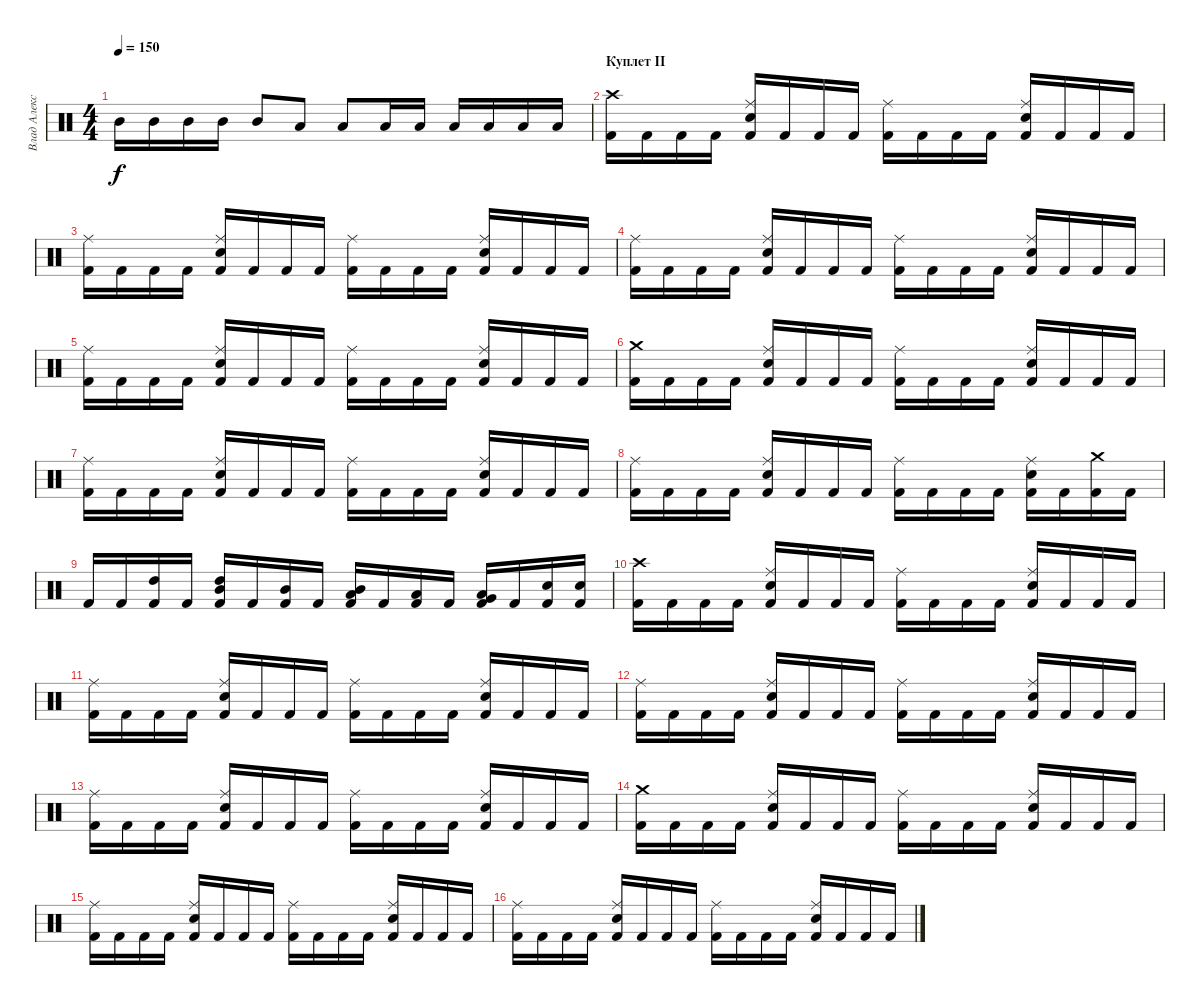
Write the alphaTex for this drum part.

\track ("Влад Алексеенко" "Влад Алекс") {instrument percussion}
\staff {score}
\articulation defaults
\ts (4 4)
\tempo 150
\clef neutral
\ks c "Mid Tom (hit)".16{dy f} "Mid Tom (hit)".16 "Mid Tom (hit)".16 "Mid Tom (hit)".16 "Mid Tom (hit)".8 "Low Tom (hit)".8 "Low Tom (hit)".8 "Low Tom (hit)".16 "Low Tom (hit)".16 "Low Tom (hit)".16 "Low Tom (hit)".16 "Low Tom (hit)".16 "Low Tom (hit)".16
|
\section ("" "Куплет II")
("Crash high (hit)" "Kick (hit) 2").16 "Kick (hit) 2".16 "Kick (hit) 2".16 "Kick (hit) 2".16 ("Ride (middle)" "Electric Snare (hit)" "Kick (hit) 2").16 "Kick (hit) 2".16 "Kick (hit) 2".16 "Kick (hit) 2".16 ("Ride (middle)" "Kick (hit) 2").16 "Kick (hit) 2".16 "Kick (hit) 2".16 "Kick (hit) 2".16 ("Ride (middle)" "Electric Snare (hit)" "Kick (hit) 2").16 "Kick (hit) 2".16 "Kick (hit) 2".16 "Kick (hit) 2".16 |
("Ride (middle)" "Kick (hit) 2").16 "Kick (hit) 2".16 "Kick (hit) 2".16 "Kick (hit) 2".16 ("Ride (middle)" "Electric Snare (hit)" "Kick (hit) 2").16 "Kick (hit) 2".16 "Kick (hit) 2".16 "Kick (hit) 2".16 ("Ride (middle)" "Kick (hit) 2").16 "Kick (hit) 2".16 "Kick (hit) 2".16 "Kick (hit) 2".16 ("Ride (middle)" "Electric Snare (hit)" "Kick (hit) 2").16 "Kick (hit) 2".16 "Kick (hit) 2".16 "Kick (hit) 2".16 |
("Ride (middle)" "Kick (hit) 2").16 "Kick (hit) 2".16 "Kick (hit) 2".16 "Kick (hit) 2".16 ("Ride (middle)" "Electric Snare (hit)" "Kick (hit) 2").16 "Kick (hit) 2".16 "Kick (hit) 2".16 "Kick (hit) 2".16 ("Ride (middle)" "Kick (hit) 2").16 "Kick (hit) 2".16 "Kick (hit) 2".16 "Kick (hit) 2".16 ("Ride (middle)" "Electric Snare (hit)" "Kick (hit) 2").16 "Kick (hit) 2".16 "Kick (hit) 2".16 "Kick (hit) 2".16 |
("Ride (middle)" "Kick (hit) 2").16 "Kick (hit) 2".16 "Kick (hit) 2".16 "Kick (hit) 2".16 ("Ride (middle)" "Electric Snare (hit)" "Kick (hit) 2").16 "Kick (hit) 2".16 "Kick (hit) 2".16 "Kick (hit) 2".16 ("Ride (middle)" "Kick (hit) 2").16 "Kick (hit) 2".16 "Kick (hit) 2".16 "Kick (hit) 2".16 ("Ride (middle)" "Electric Snare (hit)" "Kick (hit) 2").16 "Kick (hit) 2".16 "Kick (hit) 2".16 "Kick (hit) 2".16 |
("Crash medium (hit)" "Kick (hit) 2").16 "Kick (hit) 2".16 "Kick (hit) 2".16 "Kick (hit) 2".16 ("Ride (middle)" "Electric Snare (hit)" "Kick (hit) 2").16 "Kick (hit) 2".16 "Kick (hit) 2".16 "Kick (hit) 2".16 ("Ride (middle)" "Kick (hit) 2").16 "Kick (hit) 2".16 "Kick (hit) 2".16 "Kick (hit) 2".16 ("Ride (middle)" "Electric Snare (hit)" "Kick (hit) 2").16 "Kick (hit) 2".16 "Kick (hit) 2".16 "Kick (hit) 2".16 |
("Ride (middle)" "Kick (hit) 2").16 "Kick (hit) 2".16 "Kick (hit) 2".16 "Kick (hit) 2".16 ("Ride (middle)" "Electric Snare (hit)" "Kick (hit) 2").16 "Kick (hit) 2".16 "Kick (hit) 2".16 "Kick (hit) 2".16 ("Ride (middle)" "Kick (hit) 2").16 "Kick (hit) 2".16 "Kick (hit) 2".16 "Kick (hit) 2".16 ("Ride (middle)" "Electric Snare (hit)" "Kick (hit) 2").16 "Kick (hit) 2".16 "Kick (hit) 2".16 "Kick (hit) 2".16 |
("Ride (middle)" "Kick (hit) 2").16 "Kick (hit) 2".16 "Kick (hit) 2".16 "Kick (hit) 2".16 ("Ride (middle)" "Electric Snare (hit)" "Kick (hit) 2").16 "Kick (hit) 2".16 "Kick (hit) 2".16 "Kick (hit) 2".16 ("Ride (middle)" "Kick (hit) 2").16 "Kick (hit) 2".16 "Kick (hit) 2".16 "Kick (hit) 2".16 ("Ride (middle)" "Electric Snare (hit)" "Kick (hit) 2").16 "Kick (hit) 2".16 ("Crash medium (hit)" "Kick (hit) 2").16 "Kick (hit) 2".16 |
"Kick (hit) 2".16 "Kick (hit) 2".16 ("High Tom (hit)" "Kick (hit) 2").16 "Kick (hit) 2".16 ("High Tom (hit)" "Mid Tom (hit)" "Kick (hit) 2").16 "Kick (hit) 2".16 ("Mid Tom (hit)" "Kick (hit) 2").16 "Kick (hit) 2".16 ("Mid Tom (hit)" "Low Tom (hit)" "Kick (hit) 2").16 "Kick (hit) 2".16 ("Low Tom (hit)" "Kick (hit) 2").16 "Kick (hit) 2".16 ("Low Tom (hit)" "Very Low Tom (hit)" "Kick (hit) 2").16 "Kick (hit) 2".16 ("Electric Snare (hit)" "Kick (hit) 2").16 ("Electric Snare (hit)" "Kick (hit) 2").16 |
("Crash high (hit)" "Kick (hit) 2").16 "Kick (hit) 2".16 "Kick (hit) 2".16 "Kick (hit) 2".16 ("Ride (middle)" "Electric Snare (hit)" "Kick (hit) 2").16 "Kick (hit) 2".16 "Kick (hit) 2".16 "Kick (hit) 2".16 ("Ride (middle)" "Kick (hit) 2").16 "Kick (hit) 2".16 "Kick (hit) 2".16 "Kick (hit) 2".16 ("Ride (middle)" "Electric Snare (hit)" "Kick (hit) 2").16 "Kick (hit) 2".16 "Kick (hit) 2".16 "Kick (hit) 2".16 |
("Ride (middle)" "Kick (hit) 2").16 "Kick (hit) 2".16 "Kick (hit) 2".16 "Kick (hit) 2".16 ("Ride (middle)" "Electric Snare (hit)" "Kick (hit) 2").16 "Kick (hit) 2".16 "Kick (hit) 2".16 "Kick (hit) 2".16 ("Ride (middle)" "Kick (hit) 2").16 "Kick (hit) 2".16 "Kick (hit) 2".16 "Kick (hit) 2".16 ("Ride (middle)" "Electric Snare (hit)" "Kick (hit) 2").16 "Kick (hit) 2".16 "Kick (hit) 2".16 "Kick (hit) 2".16 |
("Ride (middle)" "Kick (hit) 2").16 "Kick (hit) 2".16 "Kick (hit) 2".16 "Kick (hit) 2".16 ("Ride (middle)" "Electric Snare (hit)" "Kick (hit) 2").16 "Kick (hit) 2".16 "Kick (hit) 2".16 "Kick (hit) 2".16 ("Ride (middle)" "Kick (hit) 2").16 "Kick (hit) 2".16 "Kick (hit) 2".16 "Kick (hit) 2".16 ("Ride (middle)" "Electric Snare (hit)" "Kick (hit) 2").16 "Kick (hit) 2".16 "Kick (hit) 2".16 "Kick (hit) 2".16 |
("Ride (middle)" "Kick (hit) 2").16 "Kick (hit) 2".16 "Kick (hit) 2".16 "Kick (hit) 2".16 ("Ride (middle)" "Electric Snare (hit)" "Kick (hit) 2").16 "Kick (hit) 2".16 "Kick (hit) 2".16 "Kick (hit) 2".16 ("Ride (middle)" "Kick (hit) 2").16 "Kick (hit) 2".16 "Kick (hit) 2".16 "Kick (hit) 2".16 ("Ride (middle)" "Electric Snare (hit)" "Kick (hit) 2").16 "Kick (hit) 2".16 "Kick (hit) 2".16 "Kick (hit) 2".16 |
("Crash medium (hit)" "Kick (hit) 2").16 "Kick (hit) 2".16 "Kick (hit) 2".16 "Kick (hit) 2".16 ("Ride (middle)" "Electric Snare (hit)" "Kick (hit) 2").16 "Kick (hit) 2".16 "Kick (hit) 2".16 "Kick (hit) 2".16 ("Ride (middle)" "Kick (hit) 2").16 "Kick (hit) 2".16 "Kick (hit) 2".16 "Kick (hit) 2".16 ("Ride (middle)" "Electric Snare (hit)" "Kick (hit) 2").16 "Kick (hit) 2".16 "Kick (hit) 2".16 "Kick (hit) 2".16 |
("Ride (middle)" "Kick (hit) 2").16 "Kick (hit) 2".16 "Kick (hit) 2".16 "Kick (hit) 2".16 ("Ride (middle)" "Electric Snare (hit)" "Kick (hit) 2").16 "Kick (hit) 2".16 "Kick (hit) 2".16 "Kick (hit) 2".16 ("Ride (middle)" "Kick (hit) 2").16 "Kick (hit) 2".16 "Kick (hit) 2".16 "Kick (hit) 2".16 ("Ride (middle)" "Electric Snare (hit)" "Kick (hit) 2").16 "Kick (hit) 2".16 "Kick (hit) 2".16 "Kick (hit) 2".16 |
("Ride (middle)" "Kick (hit) 2").16 "Kick (hit) 2".16 "Kick (hit) 2".16 "Kick (hit) 2".16 ("Ride (middle)" "Electric Snare (hit)" "Kick (hit) 2").16 "Kick (hit) 2".16 "Kick (hit) 2".16 "Kick (hit) 2".16 ("Ride (middle)" "Kick (hit) 2").16 "Kick (hit) 2".16 "Kick (hit) 2".16 "Kick (hit) 2".16 ("Ride (middle)" "Electric Snare (hit)" "Kick (hit) 2").16 "Kick (hit) 2".16 "Kick (hit) 2".16 "Kick (hit) 2".16
